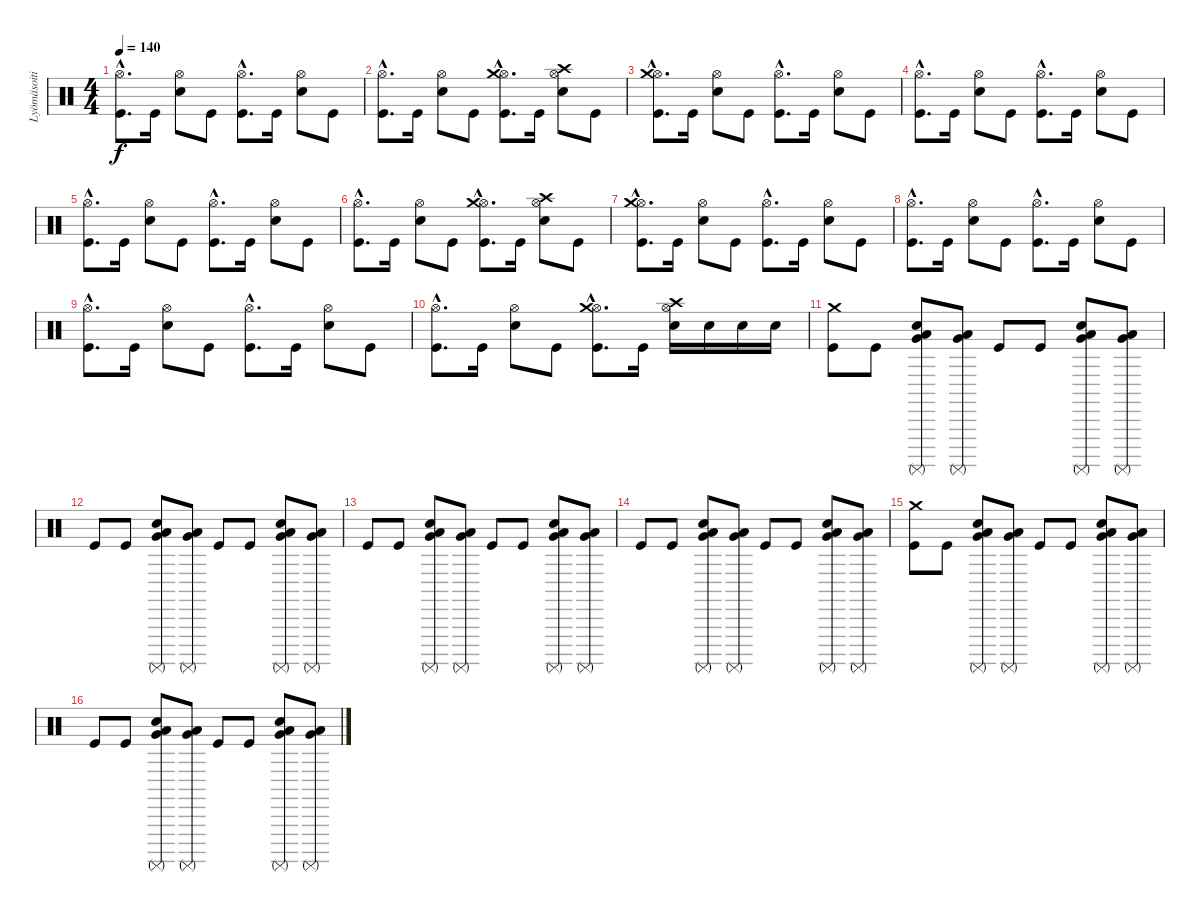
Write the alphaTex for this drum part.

\track ("Lyömäsoitin" "Lyömäsoiti") {instrument percussion}
\staff {score}
\articulation defaults
\ts (4 4)
\tempo 140
\clef neutral
\ks c
("Kick (hit)"{hac} "Hi-Hat (open)"{hac}).8{d dy f} "Kick (hit)".16 ("Electric Snare (hit)" "Hi-Hat (open)").8 "Kick (hit)".8 ("Kick (hit)"{hac} "Hi-Hat (open)"{hac}).8{d} "Kick (hit)".16 ("Electric Snare (hit)" "Hi-Hat (open)").8 "Kick (hit)".8 |
("Kick (hit)"{hac} "Hi-Hat (open)"{hac}).8{d} "Kick (hit)".16 ("Electric Snare (hit)" "Hi-Hat (open)").8 "Kick (hit)".8 ("Kick (hit)"{hac} "Hi-Hat (open)"{hac} "Crash medium (hit)"{hac}).8{d} "Kick (hit)".16 ("Electric Snare (hit)" "Hi-Hat (open)" "Crash high (hit)").8 "Kick (hit)".8 |
("Kick (hit)"{hac} "Hi-Hat (open)"{hac} "Crash medium (hit)"{hac}).8{d} "Kick (hit)".16 ("Electric Snare (hit)" "Hi-Hat (open)").8 "Kick (hit)".8 ("Kick (hit)"{hac} "Hi-Hat (open)"{hac}).8{d} "Kick (hit)".16 ("Electric Snare (hit)" "Hi-Hat (open)").8 "Kick (hit)".8 |
("Kick (hit)"{hac} "Hi-Hat (open)"{hac}).8{d} "Kick (hit)".16 ("Electric Snare (hit)" "Hi-Hat (open)").8 "Kick (hit)".8 ("Kick (hit)"{hac} "Hi-Hat (open)"{hac}).8{d} "Kick (hit)".16 ("Electric Snare (hit)" "Hi-Hat (open)").8 "Kick (hit)".8 |
("Kick (hit)"{hac} "Hi-Hat (open)"{hac}).8{d} "Kick (hit)".16 ("Electric Snare (hit)" "Hi-Hat (open)").8 "Kick (hit)".8 ("Kick (hit)"{hac} "Hi-Hat (open)"{hac}).8{d} "Kick (hit)".16 ("Electric Snare (hit)" "Hi-Hat (open)").8 "Kick (hit)".8 |
("Kick (hit)"{hac} "Hi-Hat (open)"{hac}).8{d} "Kick (hit)".16 ("Electric Snare (hit)" "Hi-Hat (open)").8 "Kick (hit)".8 ("Kick (hit)"{hac} "Hi-Hat (open)"{hac} "Crash medium (hit)"{hac}).8{d} "Kick (hit)".16 ("Electric Snare (hit)" "Hi-Hat (open)" "Crash high (hit)").8 "Kick (hit)".8 |
("Kick (hit)"{hac} "Hi-Hat (open)"{hac} "Crash medium (hit)"{hac}).8{d} "Kick (hit)".16 ("Electric Snare (hit)" "Hi-Hat (open)").8 "Kick (hit)".8 ("Kick (hit)"{hac} "Hi-Hat (open)"{hac}).8{d} "Kick (hit)".16 ("Electric Snare (hit)" "Hi-Hat (open)").8 "Kick (hit)".8 |
("Kick (hit)"{hac} "Hi-Hat (open)"{hac}).8{d} "Kick (hit)".16 ("Electric Snare (hit)" "Hi-Hat (open)").8 "Kick (hit)".8 ("Kick (hit)"{hac} "Hi-Hat (open)"{hac}).8{d} "Kick (hit)".16 ("Electric Snare (hit)" "Hi-Hat (open)").8 "Kick (hit)".8 |
("Kick (hit)"{hac} "Hi-Hat (open)"{hac}).8{d} "Kick (hit)".16 ("Electric Snare (hit)" "Hi-Hat (open)").8 "Kick (hit)".8 ("Kick (hit)"{hac} "Hi-Hat (open)"{hac}).8{d} "Kick (hit)".16 ("Electric Snare (hit)" "Hi-Hat (open)").8 "Kick (hit)".8 |
("Kick (hit)"{hac} "Hi-Hat (open)"{hac}).8{d} "Kick (hit)".16 ("Electric Snare (hit)" "Hi-Hat (open)").8 "Kick (hit)".8 ("Kick (hit)"{hac} "Hi-Hat (open)"{hac} "Crash medium (hit)"{hac}).8{d} "Kick (hit)".16 ("Electric Snare (hit)" "Hi-Hat (open)" "Crash high (hit)").16 "Electric Snare (hit)".16 "Electric Snare (hit)".16 "Electric Snare (hit)".16 |
("Kick (hit)" "Crash medium (hit)").8 "Kick (hit)".8 ("Surdo (mute)" "Low Floor Tom (hit)" "Very Low Tom (hit)" "Electric Snare (hit)").8 ("Surdo (mute)" "Low Floor Tom (hit)" "Very Low Tom (hit)").8 "Kick (hit)".8 "Kick (hit)".8 ("Surdo (mute)" "Low Floor Tom (hit)" "Very Low Tom (hit)" "Electric Snare (hit)").8 ("Surdo (mute)" "Low Floor Tom (hit)" "Very Low Tom (hit)").8 |
"Kick (hit)".8 "Kick (hit)".8 ("Surdo (mute)" "Low Floor Tom (hit)" "Very Low Tom (hit)" "Electric Snare (hit)").8 ("Surdo (mute)" "Low Floor Tom (hit)" "Very Low Tom (hit)").8 "Kick (hit)".8 "Kick (hit)".8 ("Surdo (mute)" "Low Floor Tom (hit)" "Very Low Tom (hit)" "Electric Snare (hit)").8 ("Surdo (mute)" "Low Floor Tom (hit)" "Very Low Tom (hit)").8 |
"Kick (hit)".8 "Kick (hit)".8 ("Surdo (mute)" "Low Floor Tom (hit)" "Very Low Tom (hit)" "Electric Snare (hit)").8 ("Surdo (mute)" "Low Floor Tom (hit)" "Very Low Tom (hit)").8 "Kick (hit)".8 "Kick (hit)".8 ("Surdo (mute)" "Low Floor Tom (hit)" "Very Low Tom (hit)" "Electric Snare (hit)").8 ("Surdo (mute)" "Low Floor Tom (hit)" "Very Low Tom (hit)").8 |
"Kick (hit)".8 "Kick (hit)".8 ("Surdo (mute)" "Low Floor Tom (hit)" "Very Low Tom (hit)" "Electric Snare (hit)").8 ("Surdo (mute)" "Low Floor Tom (hit)" "Very Low Tom (hit)").8 "Kick (hit)".8 "Kick (hit)".8 ("Surdo (mute)" "Low Floor Tom (hit)" "Very Low Tom (hit)" "Electric Snare (hit)").8 ("Surdo (mute)" "Low Floor Tom (hit)" "Very Low Tom (hit)").8 |
("Kick (hit)" "Crash medium (hit)").8 "Kick (hit)".8 ("Surdo (mute)" "Low Floor Tom (hit)" "Very Low Tom (hit)" "Electric Snare (hit)").8 ("Surdo (mute)" "Low Floor Tom (hit)" "Very Low Tom (hit)").8 "Kick (hit)".8 "Kick (hit)".8 ("Surdo (mute)" "Low Floor Tom (hit)" "Very Low Tom (hit)" "Electric Snare (hit)").8 ("Surdo (mute)" "Low Floor Tom (hit)" "Very Low Tom (hit)").8 |
"Kick (hit)".8 "Kick (hit)".8 ("Surdo (mute)" "Low Floor Tom (hit)" "Very Low Tom (hit)" "Electric Snare (hit)").8 ("Surdo (mute)" "Low Floor Tom (hit)" "Very Low Tom (hit)").8 "Kick (hit)".8 "Kick (hit)".8 ("Surdo (mute)" "Low Floor Tom (hit)" "Very Low Tom (hit)" "Electric Snare (hit)").8 ("Surdo (mute)" "Low Floor Tom (hit)" "Very Low Tom (hit)").8
